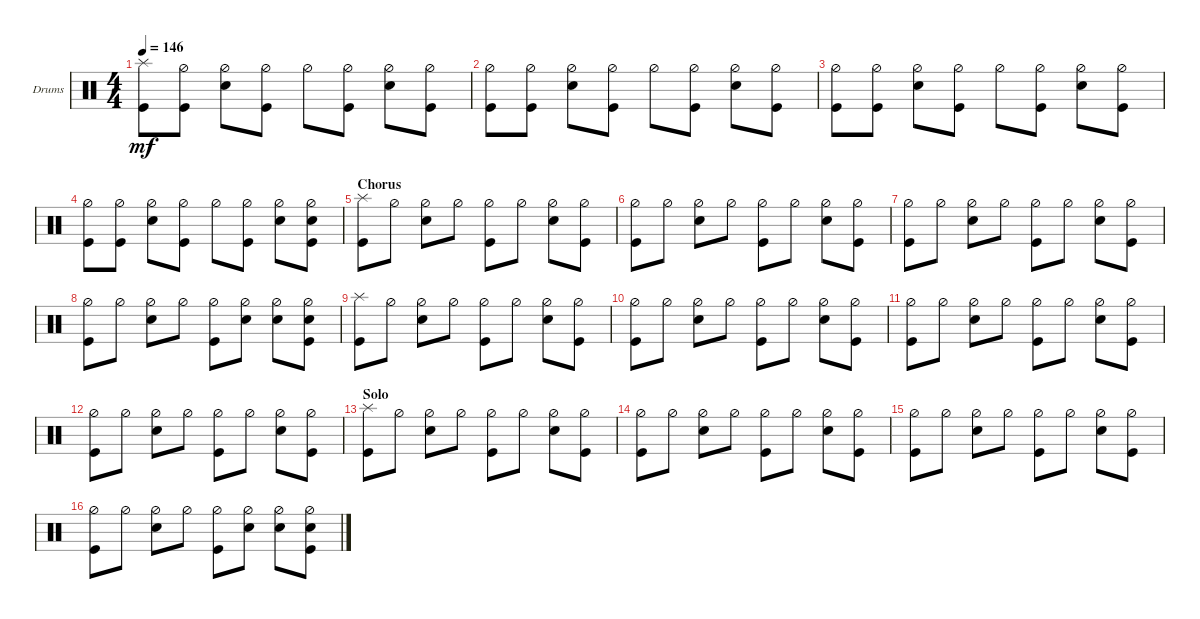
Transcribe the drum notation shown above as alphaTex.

\defaultSystemsLayout 4
\bracketExtendMode groupsimilarinstruments
\firstSystemTrackNameOrientation horizontal
\otherSystemsTrackNameOrientation horizontal
\track ("Drums" "Drums") {instrument percussion}
\staff {score}
\articulation defaults
\ts (4 4)
\tempo 146
\clef neutral
\ks c
("Kick (hit)" "Splash (hit)").8{dy mf} ("Kick (hit)" "Hi-Hat (half)").8 ("Snare (hit) 2" "Hi-Hat (half)").8 ("Kick (hit)" "Hi-Hat (half)").8 "Hi-Hat (half)".8 ("Kick (hit)" "Hi-Hat (half)").8 ("Snare (hit) 2" "Hi-Hat (half)").8 ("Kick (hit)" "Hi-Hat (half)").8 |
("Kick (hit)" "Hi-Hat (half)").8 ("Kick (hit)" "Hi-Hat (half)").8 ("Snare (hit) 2" "Hi-Hat (half)").8 ("Kick (hit)" "Hi-Hat (half)").8 "Hi-Hat (half)".8 ("Kick (hit)" "Hi-Hat (half)").8 ("Snare (hit) 2" "Hi-Hat (half)").8 ("Kick (hit)" "Hi-Hat (half)").8 |
("Kick (hit)" "Hi-Hat (half)").8 ("Kick (hit)" "Hi-Hat (half)").8 ("Snare (hit) 2" "Hi-Hat (half)").8 ("Kick (hit)" "Hi-Hat (half)").8 "Hi-Hat (half)".8 ("Kick (hit)" "Hi-Hat (half)").8 ("Snare (hit) 2" "Hi-Hat (half)").8 ("Kick (hit)" "Hi-Hat (half)").8 |
("Kick (hit)" "Hi-Hat (half)").8 ("Kick (hit)" "Hi-Hat (half)").8 ("Snare (hit) 2" "Hi-Hat (half)").8 ("Kick (hit)" "Hi-Hat (half)").8 "Hi-Hat (half)".8 ("Kick (hit)" "Hi-Hat (half)").8 ("Snare (hit) 2" "Hi-Hat (half)").8 ("Kick (hit)" "Hi-Hat (half)" "Snare (hit) 2").8 |
\section ("" "Chorus")
("Kick (hit)" "Splash (hit)").8 "Hi-Hat (half)".8 ("Snare (hit) 2" "Hi-Hat (half)").8 "Hi-Hat (half)".8 ("Hi-Hat (half)" "Kick (hit)").8 "Hi-Hat (half)".8 ("Hi-Hat (half)" "Snare (hit) 2").8 ("Hi-Hat (half)" "Kick (hit)").8 |
("Kick (hit)" "Hi-Hat (half)").8 "Hi-Hat (half)".8 ("Snare (hit) 2" "Hi-Hat (half)").8 "Hi-Hat (half)".8 ("Hi-Hat (half)" "Kick (hit)").8 "Hi-Hat (half)".8 ("Hi-Hat (half)" "Snare (hit) 2").8 ("Hi-Hat (half)" "Kick (hit)").8 |
("Kick (hit)" "Hi-Hat (half)").8 "Hi-Hat (half)".8 ("Snare (hit) 2" "Hi-Hat (half)").8 "Hi-Hat (half)".8 ("Hi-Hat (half)" "Kick (hit)").8 "Hi-Hat (half)".8 ("Hi-Hat (half)" "Snare (hit) 2").8 ("Hi-Hat (half)" "Kick (hit)").8 |
("Kick (hit)" "Hi-Hat (half)").8 "Hi-Hat (half)".8 ("Snare (hit) 2" "Hi-Hat (half)").8 "Hi-Hat (half)".8 ("Hi-Hat (half)" "Kick (hit)").8 ("Hi-Hat (half)" "Snare (hit) 2").8 ("Hi-Hat (half)" "Snare (hit) 2").8 ("Hi-Hat (half)" "Kick (hit)" "Snare (hit) 2").8 |
("Kick (hit)" "Splash (hit)").8 "Hi-Hat (half)".8 ("Snare (hit) 2" "Hi-Hat (half)").8 "Hi-Hat (half)".8 ("Hi-Hat (half)" "Kick (hit)").8 "Hi-Hat (half)".8 ("Hi-Hat (half)" "Snare (hit) 2").8 ("Hi-Hat (half)" "Kick (hit)").8 |
("Kick (hit)" "Hi-Hat (half)").8 "Hi-Hat (half)".8 ("Snare (hit) 2" "Hi-Hat (half)").8 "Hi-Hat (half)".8 ("Hi-Hat (half)" "Kick (hit)").8 "Hi-Hat (half)".8 ("Hi-Hat (half)" "Snare (hit) 2").8 ("Hi-Hat (half)" "Kick (hit)").8 |
("Kick (hit)" "Hi-Hat (half)").8 "Hi-Hat (half)".8 ("Snare (hit) 2" "Hi-Hat (half)").8 "Hi-Hat (half)".8 ("Hi-Hat (half)" "Kick (hit)").8 "Hi-Hat (half)".8 ("Hi-Hat (half)" "Snare (hit) 2").8 ("Hi-Hat (half)" "Kick (hit)").8 |
("Kick (hit)" "Hi-Hat (half)").8 "Hi-Hat (half)".8 ("Snare (hit) 2" "Hi-Hat (half)").8 "Hi-Hat (half)".8 ("Hi-Hat (half)" "Kick (hit)").8 "Hi-Hat (half)".8 ("Hi-Hat (half)" "Snare (hit) 2").8 ("Hi-Hat (half)" "Kick (hit)").8 |
\section ("" "Solo")
("Kick (hit)" "Splash (hit)").8 "Hi-Hat (half)".8 ("Snare (hit) 2" "Hi-Hat (half)").8 "Hi-Hat (half)".8 ("Hi-Hat (half)" "Kick (hit)").8 "Hi-Hat (half)".8 ("Hi-Hat (half)" "Snare (hit) 2").8 ("Hi-Hat (half)" "Kick (hit)").8 |
("Kick (hit)" "Hi-Hat (half)").8 "Hi-Hat (half)".8 ("Snare (hit) 2" "Hi-Hat (half)").8 "Hi-Hat (half)".8 ("Hi-Hat (half)" "Kick (hit)").8 "Hi-Hat (half)".8 ("Hi-Hat (half)" "Snare (hit) 2").8 ("Hi-Hat (half)" "Kick (hit)").8 |
("Kick (hit)" "Hi-Hat (half)").8 "Hi-Hat (half)".8 ("Snare (hit) 2" "Hi-Hat (half)").8 "Hi-Hat (half)".8 ("Hi-Hat (half)" "Kick (hit)").8 "Hi-Hat (half)".8 ("Hi-Hat (half)" "Snare (hit) 2").8 ("Hi-Hat (half)" "Kick (hit)").8 |
("Kick (hit)" "Hi-Hat (half)").8 "Hi-Hat (half)".8 ("Snare (hit) 2" "Hi-Hat (half)").8 "Hi-Hat (half)".8 ("Hi-Hat (half)" "Kick (hit)").8 ("Hi-Hat (half)" "Snare (hit) 2").8 ("Hi-Hat (half)" "Snare (hit) 2").8 ("Hi-Hat (half)" "Kick (hit)" "Snare (hit) 2").8
